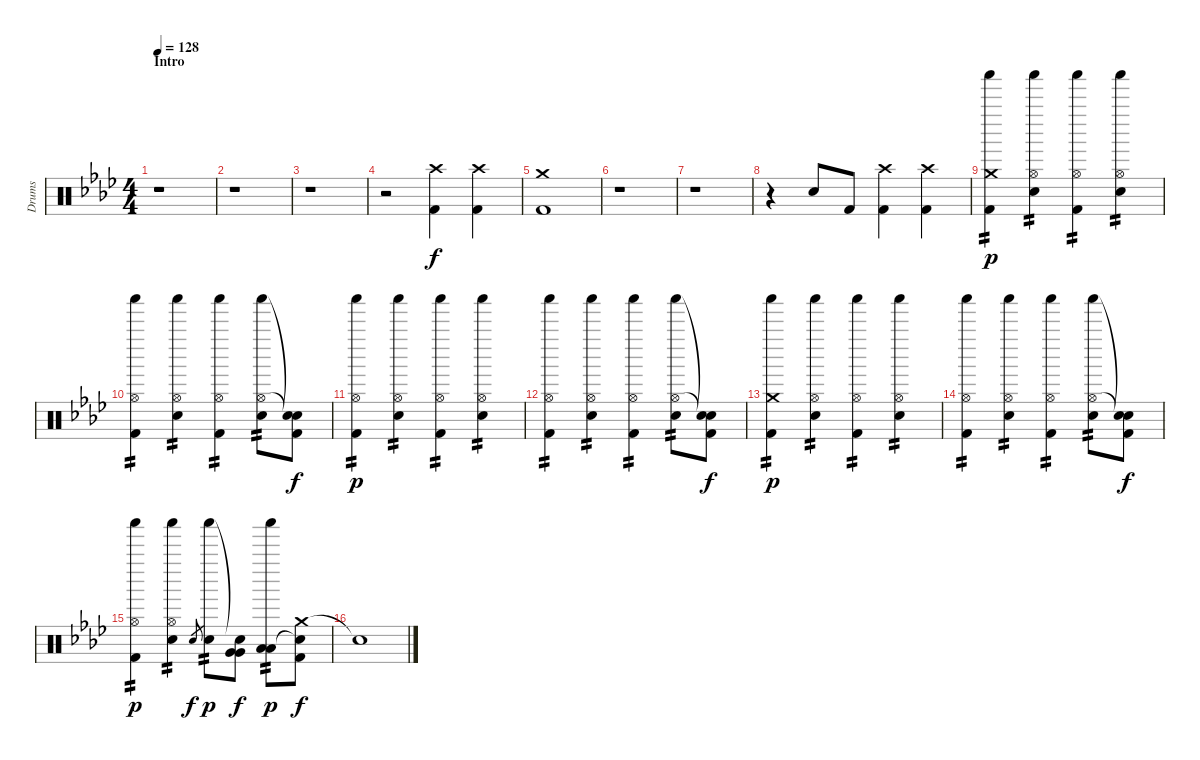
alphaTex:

\track ("Drums" "Drums") {instrument percussion}
\staff {score}
\articulation defaults
\ts (4 4)
\section ("" "Intro")
\tempo 128
\clef neutral
\ks fminor
r.1{dy f} |
r.1 |
r.1 |
r.2 ("Crash high (hit)" "Kick (hit) 2").4 ("Crash high (hit)" "Kick (hit) 2").4 |
("Crash medium (hit)" "Kick (hit) 2").1 |
r.1 |
r.1 |
r.4 "Electric Snare (hit)".8 "Kick (hit) 2".8 ("Crash high (hit)" "Kick (hit) 2").4 ("Crash high (hit)" "Kick (hit) 2").4 |
("Crash medium (hit)" "Shaker (hit)" "Kick (hit) 2").4{tp 2 dy p} ("Shaker (hit)" "Hi-Hat (open)" "Electric Snare (hit)").4{tp 2} ("Shaker (hit)" "Hi-Hat (open)" "Kick (hit) 2").4{tp 2} ("Shaker (hit)" "Hi-Hat (open)" "Electric Snare (hit)").4{tp 2} |
("Shaker (hit)" "Hi-Hat (open)" "Kick (hit) 2").4{tp 2} ("Shaker (hit)" "Hi-Hat (open)" "Electric Snare (hit)").4{tp 2} ("Shaker (hit)" "Hi-Hat (open)" "Kick (hit) 2").4{tp 2} ("Shaker (hit)" "Hi-Hat (open)" "Electric Snare (hit)").8{tp 2} ("Snare (hit)"{t} "Snare (hit)"{t} "Kick (hit) 2").8{dy f} |
("Shaker (hit)" "Hi-Hat (open)" "Kick (hit) 2").4{tp 2 dy p} ("Shaker (hit)" "Hi-Hat (open)" "Electric Snare (hit)").4{tp 2} ("Shaker (hit)" "Hi-Hat (open)" "Kick (hit) 2").4{tp 2} ("Shaker (hit)" "Hi-Hat (open)" "Electric Snare (hit)").4{tp 2} |
("Shaker (hit)" "Hi-Hat (open)" "Kick (hit) 2").4{tp 2} ("Shaker (hit)" "Hi-Hat (open)" "Electric Snare (hit)").4{tp 2} ("Shaker (hit)" "Hi-Hat (open)" "Kick (hit) 2").4{tp 2} ("Shaker (hit)" "Hi-Hat (open)" "Electric Snare (hit)").8{tp 2} ("Snare (hit)"{t} "Snare (hit)"{t} "Kick (hit) 2").8{dy f} |
("Crash medium (hit)" "Shaker (hit)" "Kick (hit) 2").4{tp 2 dy p} ("Shaker (hit)" "Hi-Hat (open)" "Electric Snare (hit)").4{tp 2} ("Shaker (hit)" "Hi-Hat (open)" "Kick (hit) 2").4{tp 2} ("Shaker (hit)" "Hi-Hat (open)" "Electric Snare (hit)").4{tp 2} |
("Shaker (hit)" "Hi-Hat (open)" "Kick (hit) 2").4{tp 2} ("Shaker (hit)" "Hi-Hat (open)" "Electric Snare (hit)").4{tp 2} ("Shaker (hit)" "Hi-Hat (open)" "Kick (hit) 2").4{tp 2} ("Shaker (hit)" "Hi-Hat (open)" "Electric Snare (hit)").8{tp 2} ("Snare (hit)"{t} "Snare (hit)"{t} "Kick (hit) 2").8{dy f} |
("Shaker (hit)" "Hi-Hat (open)" "Kick (hit) 2").4{tp 2 dy p} ("Shaker (hit)" "Hi-Hat (open)" "Electric Snare (hit)").4{tp 2} "Electric Snare (hit)"{sl}.8{gr dy f} ("Shaker (hit)" "Electric Snare (hit)").8{tp 2 dy p} ("Snare (hit)"{t} "Very Low Tom (hit)" "Very Low Tom (hit)").8{dy f} ("Shaker (hit)" "Low Floor Tom (hit)" "Low Floor Tom (hit)").8{tp 2 dy p} ("Crash medium (hit)" "Snare (hit)"{t} "Kick (hit) 2").8{dy f} |
"Snare (hit)"{t}.1
